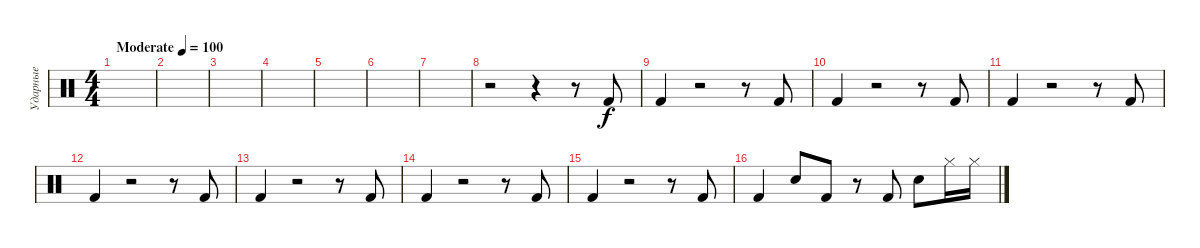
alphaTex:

\track ("Ударные" "Ударные") {instrument percussion}
\staff {score}
\articulation defaults
\ts (4 4)
\tempo (100 "Moderate")
\clef neutral
\ks c
|
|
|
|
|
|
|
r.2 r.4 r.8 "Kick (hit) 2".8 |
"Kick (hit) 2".4 r.2 r.8 "Kick (hit) 2".8 |
"Kick (hit) 2".4 r.2 r.8 "Kick (hit) 2".8 |
"Kick (hit) 2".4 r.2 r.8 "Kick (hit) 2".8 |
"Kick (hit) 2".4 r.2 r.8 "Kick (hit) 2".8 |
"Kick (hit) 2".4 r.2 r.8 "Kick (hit) 2".8 |
"Kick (hit) 2".4 r.2 r.8 "Kick (hit) 2".8 |
"Kick (hit) 2".4 r.2 r.8 "Kick (hit) 2".8 |
"Kick (hit) 2".4 "Electric Snare (hit)".8 "Kick (hit) 2".8 r.8 "Kick (hit) 2".8 "Electric Snare (hit)".8 "Hi-Hat (closed)".16 "Hi-Hat (closed)".16
